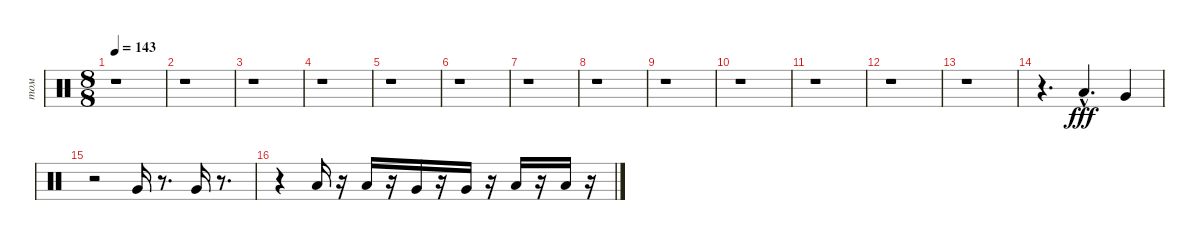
\track ("том" "том") {instrument percussion}
\staff {score}
\articulation defaults
\ts (8 8)
\tempo 143
\clef neutral
\ks c
r.1{dy fff} |
r.1 |
r.1 |
r.1 |
r.1 |
r.1 |
r.1 |
r.1 |
r.1 |
r.1 |
r.1 |
r.1 |
r.1 |
r.4{d} "Low Tom (hit)"{hac}.4{d} "Very Low Tom (hit)".4 |
r.2 "Very Low Tom (hit)".16 r.8{d} "Very Low Tom (hit)".16 r.8{d} |
r.4 "Low Tom (hit)".16 r.16 "Low Tom (hit)".16 r.16 "Very Low Tom (hit)".16 r.16 "Very Low Tom (hit)".16 r.16 "Low Floor Tom (hit)".16 r.16 "Low Floor Tom (hit)".16 r.16
